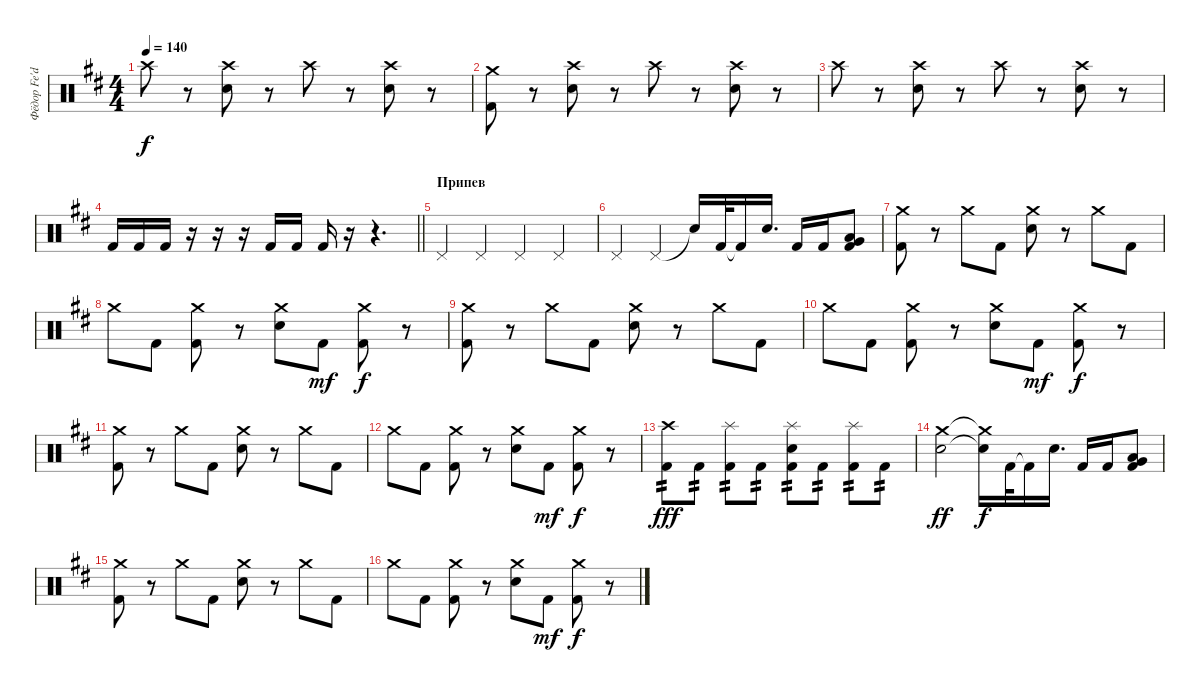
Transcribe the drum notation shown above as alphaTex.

\track ("Фёдор Fe'dor Локшин" "Фёдор Fe'd") {instrument percussion}
\staff {score}
\articulation defaults
\ts (4 4)
\tempo 140
\clef neutral
\ks bminor "Crash high (hit)".8{dy f}
r.8 ("Crash high (hit)" "Electric Snare (hit)").8 r.8 "Crash high (hit)".8 r.8 ("Crash high (hit)" "Electric Snare (hit)").8 r.8 |
("Crash medium (hit)" "Kick (hit) 2").8 r.8 ("Crash high (hit)" "Electric Snare (hit)").8 r.8 "Crash high (hit)".8 r.8 ("Crash high (hit)" "Electric Snare (hit)").8 r.8 |
"Crash high (hit)".8 r.8 ("Crash high (hit)" "Electric Snare (hit)").8 r.8 "Crash high (hit)".8 r.8 ("Crash high (hit)" "Electric Snare (hit)").8 r.8 |
\barLineRight lightlight "Kick (hit) 2".16 "Kick (hit) 2".16 "Kick (hit) 2".16
r.16 r.16 r.16 "Kick (hit) 2".16 "Kick (hit) 2".16 "Kick (hit) 2".16 r.16 r.4{d} |
\section ("" "Припев")
"Pedal Hi-Hat (hit)".4 "Pedal Hi-Hat (hit)".4 "Pedal Hi-Hat (hit)".4 "Pedal Hi-Hat (hit)".4 |
"Pedal Hi-Hat (hit)".4 "Pedal Hi-Hat (hit)".4 "Snare (hit)"{t}.16 "Kick (hit) 2".32 "Kick (hit) 2"{t}.16 "Snare (hit) 2".16{d} "Kick (hit) 2".16 "Kick (hit) 2".16 ("Very Low Tom (hit)" "Low Floor Tom (hit)" "Kick (hit) 2").8 |
("Crash medium (hit)" "Kick (hit) 2").8 r.8 "Crash medium (hit)".8 "Kick (hit) 2".8 ("Crash medium (hit)" "Snare (hit) 2").8 r.8 "Crash medium (hit)".8 "Kick (hit) 2".8 |
"Crash medium (hit)".8 "Kick (hit) 2".8 ("Crash medium (hit)" "Kick (hit) 2").8 r.8 ("Crash medium (hit)" "Snare (hit) 2").8 "Kick (hit) 2".8{dy mf} ("Crash medium (hit)" "Kick (hit) 2").8{dy f} r.8 |
("Crash medium (hit)" "Kick (hit) 2").8 r.8 "Crash medium (hit)".8 "Kick (hit) 2".8 ("Crash medium (hit)" "Snare (hit) 2").8 r.8 "Crash medium (hit)".8 "Kick (hit) 2".8 |
"Crash medium (hit)".8 "Kick (hit) 2".8 ("Crash medium (hit)" "Kick (hit) 2").8 r.8 ("Crash medium (hit)" "Snare (hit) 2").8 "Kick (hit) 2".8{dy mf} ("Crash medium (hit)" "Kick (hit) 2").8{dy f} r.8 |
("Crash medium (hit)" "Kick (hit) 2").8 r.8 "Crash medium (hit)".8 "Kick (hit) 2".8 ("Crash medium (hit)" "Snare (hit) 2").8 r.8 "Crash medium (hit)".8 "Kick (hit) 2".8 |
"Crash medium (hit)".8 "Kick (hit) 2".8 ("Crash medium (hit)" "Kick (hit) 2").8 r.8 ("Crash medium (hit)" "Snare (hit) 2").8 "Kick (hit) 2".8{dy mf} ("Crash medium (hit)" "Kick (hit) 2").8{dy f} r.8 |
("Crash high (hit)" "Kick (hit) 2").8{tp 2 dy fff} "Kick (hit) 2".8{tp 2} ("Splash (hit)" "Kick (hit) 2").8{tp 2} "Kick (hit) 2".8{tp 2} ("Splash (hit)" "Snare (hit) 2" "Kick (hit) 2").8{tp 2} "Kick (hit) 2".8{tp 2} ("Splash (hit)" "Kick (hit) 2").8{tp 2} "Kick (hit) 2".8{tp 2} |
("Crash medium (hit)" "Snare (hit) 2").2{dy ff} ("Crash medium (hit)"{t} "Snare (hit) 2"{t}).16{dy f} "Kick (hit) 2".32 "Kick (hit) 2"{t}.16 "Snare (hit) 2".16{d} "Kick (hit) 2".16 "Kick (hit) 2".16 ("Very Low Tom (hit)" "Low Floor Tom (hit)" "Kick (hit) 2").8 |
("Crash medium (hit)" "Kick (hit) 2").8 r.8 "Crash medium (hit)".8 "Kick (hit) 2".8 ("Crash medium (hit)" "Snare (hit) 2").8 r.8 "Crash medium (hit)".8 "Kick (hit) 2".8 |
"Crash medium (hit)".8 "Kick (hit) 2".8 ("Crash medium (hit)" "Kick (hit) 2").8 r.8 ("Crash medium (hit)" "Snare (hit) 2").8 "Kick (hit) 2".8{dy mf} ("Crash medium (hit)" "Kick (hit) 2").8{dy f} r.8
